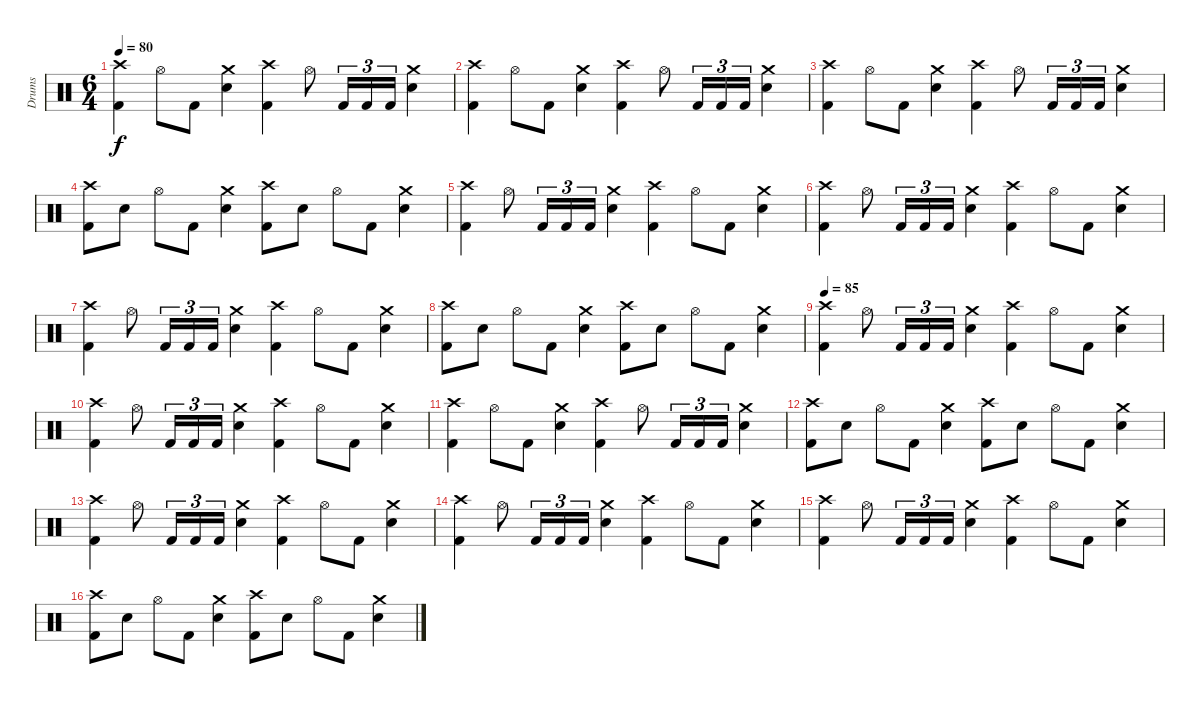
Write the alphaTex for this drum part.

\track ("Drums" "Drums") {instrument percussion}
\staff {score}
\articulation defaults
\ts (6 4)
\tempo 80
\clef neutral
\ks c
("Crash high (hit)" "Kick (hit) 2").4{dy f} "Hi-Hat (open)".8 "Kick (hit) 2".8 ("Crash medium (hit)" "Electric Snare (hit)").4 ("Crash high (hit)" "Kick (hit) 2").4 "Hi-Hat (open)".8 "Kick (hit) 2".16{tu (3 2)} "Kick (hit) 2".16{tu (3 2)} "Kick (hit) 2".16{tu (3 2)} ("Crash medium (hit)" "Electric Snare (hit)").4 |
("Crash high (hit)" "Kick (hit) 2").4 "Hi-Hat (open)".8 "Kick (hit) 2".8 ("Crash medium (hit)" "Electric Snare (hit)").4 ("Crash high (hit)" "Kick (hit) 2").4 "Hi-Hat (open)".8 "Kick (hit) 2".16{tu (3 2)} "Kick (hit) 2".16{tu (3 2)} "Kick (hit) 2".16{tu (3 2)} ("Crash medium (hit)" "Electric Snare (hit)").4 |
("Crash high (hit)" "Kick (hit) 2").4 "Hi-Hat (open)".8 "Kick (hit) 2".8 ("Crash medium (hit)" "Electric Snare (hit)").4 ("Crash high (hit)" "Kick (hit) 2").4 "Hi-Hat (open)".8 "Kick (hit) 2".16{tu (3 2)} "Kick (hit) 2".16{tu (3 2)} "Kick (hit) 2".16{tu (3 2)} ("Crash medium (hit)" "Electric Snare (hit)").4 |
("Crash high (hit)" "Kick (hit) 2").8 "Electric Snare (hit)".8 "Hi-Hat (open)".8 "Kick (hit) 2".8 ("Crash medium (hit)" "Electric Snare (hit)").4 ("Crash high (hit)" "Kick (hit) 2").8 "Electric Snare (hit)".8 "Hi-Hat (open)".8 "Kick (hit) 2".8 ("Crash medium (hit)" "Electric Snare (hit)").4 |
("Crash high (hit)" "Kick (hit) 2").4 "Hi-Hat (open)".8 "Kick (hit) 2".16{tu (3 2)} "Kick (hit) 2".16{tu (3 2)} "Kick (hit) 2".16{tu (3 2)} ("Crash medium (hit)" "Electric Snare (hit)").4 ("Crash high (hit)" "Kick (hit) 2").4 "Hi-Hat (open)".8 "Kick (hit) 2".8 ("Crash medium (hit)" "Electric Snare (hit)").4 |
("Crash high (hit)" "Kick (hit) 2").4 "Hi-Hat (open)".8 "Kick (hit) 2".16{tu (3 2)} "Kick (hit) 2".16{tu (3 2)} "Kick (hit) 2".16{tu (3 2)} ("Crash medium (hit)" "Electric Snare (hit)").4 ("Crash high (hit)" "Kick (hit) 2").4 "Hi-Hat (open)".8 "Kick (hit) 2".8 ("Crash medium (hit)" "Electric Snare (hit)").4 |
("Crash high (hit)" "Kick (hit) 2").4 "Hi-Hat (open)".8 "Kick (hit) 2".16{tu (3 2)} "Kick (hit) 2".16{tu (3 2)} "Kick (hit) 2".16{tu (3 2)} ("Crash medium (hit)" "Electric Snare (hit)").4 ("Crash high (hit)" "Kick (hit) 2").4 "Hi-Hat (open)".8 "Kick (hit) 2".8 ("Crash medium (hit)" "Electric Snare (hit)").4 |
("Crash high (hit)" "Kick (hit) 2").8 "Electric Snare (hit)".8 "Hi-Hat (open)".8 "Kick (hit) 2".8 ("Crash medium (hit)" "Electric Snare (hit)").4 ("Crash high (hit)" "Kick (hit) 2").8 "Electric Snare (hit)".8 "Hi-Hat (open)".8 "Kick (hit) 2".8 ("Crash medium (hit)" "Electric Snare (hit)").4 |
\tempo 85
("Crash high (hit)" "Kick (hit) 2").4 "Hi-Hat (open)".8 "Kick (hit) 2".16{tu (3 2)} "Kick (hit) 2".16{tu (3 2)} "Kick (hit) 2".16{tu (3 2)} ("Crash medium (hit)" "Electric Snare (hit)").4 ("Crash high (hit)" "Kick (hit) 2").4 "Hi-Hat (open)".8 "Kick (hit) 2".8 ("Crash medium (hit)" "Electric Snare (hit)").4 |
("Crash high (hit)" "Kick (hit) 2").4 "Hi-Hat (open)".8 "Kick (hit) 2".16{tu (3 2)} "Kick (hit) 2".16{tu (3 2)} "Kick (hit) 2".16{tu (3 2)} ("Crash medium (hit)" "Electric Snare (hit)").4 ("Crash high (hit)" "Kick (hit) 2").4 "Hi-Hat (open)".8 "Kick (hit) 2".8 ("Crash medium (hit)" "Electric Snare (hit)").4 |
("Crash high (hit)" "Kick (hit) 2").4 "Hi-Hat (open)".8 "Kick (hit) 2".8 ("Crash medium (hit)" "Electric Snare (hit)").4 ("Crash high (hit)" "Kick (hit) 2").4 "Hi-Hat (open)".8 "Kick (hit) 2".16{tu (3 2)} "Kick (hit) 2".16{tu (3 2)} "Kick (hit) 2".16{tu (3 2)} ("Crash medium (hit)" "Electric Snare (hit)").4 |
("Crash high (hit)" "Kick (hit) 2").8 "Electric Snare (hit)".8 "Hi-Hat (open)".8 "Kick (hit) 2".8 ("Crash medium (hit)" "Electric Snare (hit)").4 ("Crash high (hit)" "Kick (hit) 2").8 "Electric Snare (hit)".8 "Hi-Hat (open)".8 "Kick (hit) 2".8 ("Crash medium (hit)" "Electric Snare (hit)").4 |
("Crash high (hit)" "Kick (hit) 2").4 "Hi-Hat (open)".8 "Kick (hit) 2".16{tu (3 2)} "Kick (hit) 2".16{tu (3 2)} "Kick (hit) 2".16{tu (3 2)} ("Crash medium (hit)" "Electric Snare (hit)").4 ("Crash high (hit)" "Kick (hit) 2").4 "Hi-Hat (open)".8 "Kick (hit) 2".8 ("Crash medium (hit)" "Electric Snare (hit)").4 |
("Crash high (hit)" "Kick (hit) 2").4 "Hi-Hat (open)".8 "Kick (hit) 2".16{tu (3 2)} "Kick (hit) 2".16{tu (3 2)} "Kick (hit) 2".16{tu (3 2)} ("Crash medium (hit)" "Electric Snare (hit)").4 ("Crash high (hit)" "Kick (hit) 2").4 "Hi-Hat (open)".8 "Kick (hit) 2".8 ("Crash medium (hit)" "Electric Snare (hit)").4 |
("Crash high (hit)" "Kick (hit) 2").4 "Hi-Hat (open)".8 "Kick (hit) 2".16{tu (3 2)} "Kick (hit) 2".16{tu (3 2)} "Kick (hit) 2".16{tu (3 2)} ("Crash medium (hit)" "Electric Snare (hit)").4 ("Crash high (hit)" "Kick (hit) 2").4 "Hi-Hat (open)".8 "Kick (hit) 2".8 ("Crash medium (hit)" "Electric Snare (hit)").4 |
("Crash high (hit)" "Kick (hit) 2").8 "Electric Snare (hit)".8 "Hi-Hat (open)".8 "Kick (hit) 2".8 ("Crash medium (hit)" "Electric Snare (hit)").4 ("Crash high (hit)" "Kick (hit) 2").8 "Electric Snare (hit)".8 "Hi-Hat (open)".8 "Kick (hit) 2".8 ("Crash medium (hit)" "Electric Snare (hit)").4
